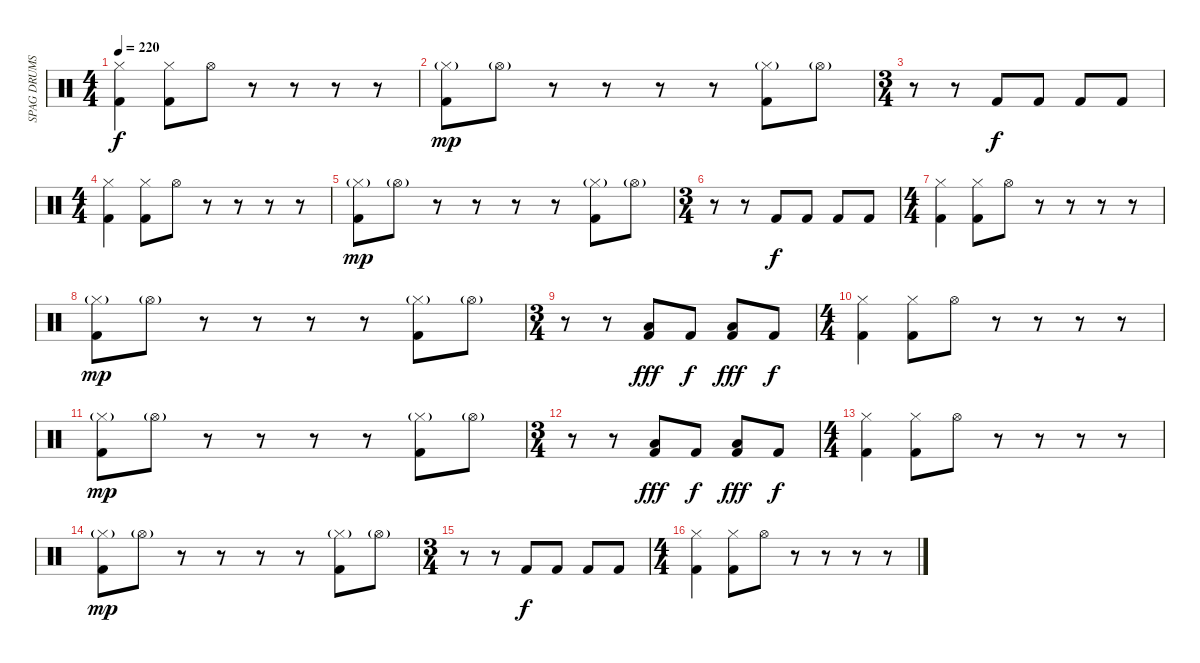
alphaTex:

\track ("SPAG DRUMS" "SPAG DRUMS") {instrument percussion}
\staff {score}
\articulation defaults
\ts (4 4)
\tempo 220
\clef neutral
\ks c
("Hi-Hat (closed)" "Kick (hit) 2").4{dy f} ("Hi-Hat (closed)" "Kick (hit) 2").8 "Hi-Hat (open)".8 r.8 r.8 r.8 r.8 |
("Kick (hit) 2" "Hi-Hat (closed)"{g}).8{dy mp} "Hi-Hat (open)"{g}.8 r.8 r.8 r.8 r.8 ("Kick (hit) 2" "Hi-Hat (closed)"{g}).8 "Hi-Hat (open)"{g}.8 |
\ts (3 4)
r.8 r.8 "Kick (hit) 2".8{dy f} "Kick (hit) 2".8 "Kick (hit) 2".8 "Kick (hit) 2".8 |
\ts (4 4)
("Hi-Hat (closed)" "Kick (hit) 2").4 ("Hi-Hat (closed)" "Kick (hit) 2").8 "Hi-Hat (open)".8 r.8 r.8 r.8 r.8 |
("Kick (hit) 2" "Hi-Hat (closed)"{g}).8{dy mp} "Hi-Hat (open)"{g}.8 r.8 r.8 r.8 r.8 ("Kick (hit) 2" "Hi-Hat (closed)"{g}).8 "Hi-Hat (open)"{g}.8 |
\ts (3 4)
r.8 r.8 "Kick (hit) 2".8{dy f} "Kick (hit) 2".8 "Kick (hit) 2".8 "Kick (hit) 2".8 |
\ts (4 4)
("Hi-Hat (closed)" "Kick (hit) 2").4 ("Hi-Hat (closed)" "Kick (hit) 2").8 "Hi-Hat (open)".8 r.8 r.8 r.8 r.8 |
("Kick (hit) 2" "Hi-Hat (closed)"{g}).8{dy mp} "Hi-Hat (open)"{g}.8 r.8 r.8 r.8 r.8 ("Kick (hit) 2" "Hi-Hat (closed)"{g}).8 "Hi-Hat (open)"{g}.8 |
\ts (3 4)
r.8 r.8 ("Low Floor Tom (hit)" "Kick (hit) 2").8{dy fff} "Kick (hit) 2".8{dy f} ("Low Floor Tom (hit)" "Kick (hit) 2").8{dy fff} "Kick (hit) 2".8{dy f} |
\ts (4 4)
("Hi-Hat (closed)" "Kick (hit) 2").4 ("Hi-Hat (closed)" "Kick (hit) 2").8 "Hi-Hat (open)".8 r.8 r.8 r.8 r.8 |
("Kick (hit) 2" "Hi-Hat (closed)"{g}).8{dy mp} "Hi-Hat (open)"{g}.8 r.8 r.8 r.8 r.8 ("Kick (hit) 2" "Hi-Hat (closed)"{g}).8 "Hi-Hat (open)"{g}.8 |
\ts (3 4)
r.8 r.8 ("Low Floor Tom (hit)" "Kick (hit) 2").8{dy fff} "Kick (hit) 2".8{dy f} ("Low Floor Tom (hit)" "Kick (hit) 2").8{dy fff} "Kick (hit) 2".8{dy f} |
\ts (4 4)
("Hi-Hat (closed)" "Kick (hit) 2").4 ("Hi-Hat (closed)" "Kick (hit) 2").8 "Hi-Hat (open)".8 r.8 r.8 r.8 r.8 |
("Kick (hit) 2" "Hi-Hat (closed)"{g}).8{dy mp} "Hi-Hat (open)"{g}.8 r.8 r.8 r.8 r.8 ("Kick (hit) 2" "Hi-Hat (closed)"{g}).8 "Hi-Hat (open)"{g}.8 |
\ts (3 4)
r.8 r.8 "Kick (hit) 2".8{dy f} "Kick (hit) 2".8 "Kick (hit) 2".8 "Kick (hit) 2".8 |
\ts (4 4)
("Hi-Hat (closed)" "Kick (hit) 2").4 ("Hi-Hat (closed)" "Kick (hit) 2").8 "Hi-Hat (open)".8 r.8 r.8 r.8 r.8
